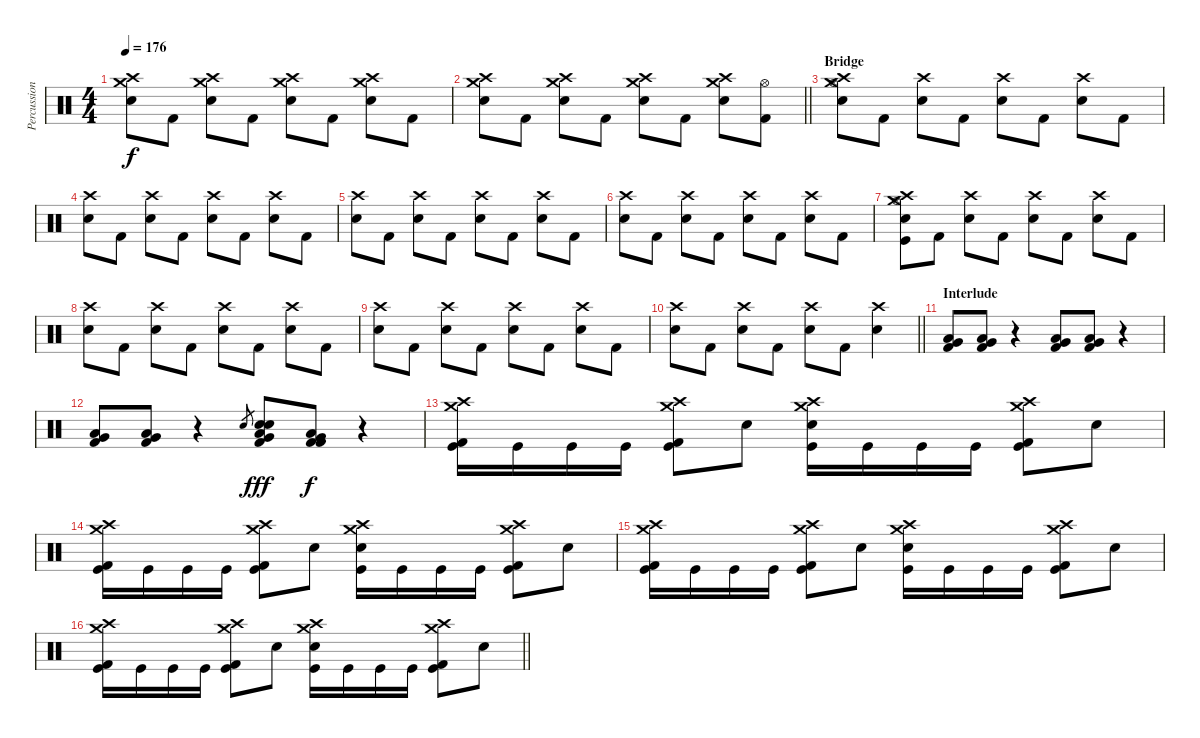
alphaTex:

\track ("Percussion" "Percussion") {instrument percussion}
\staff {score}
\articulation defaults
\ts (4 4)
\tempo 176
\clef neutral
\ks c
("Crash medium (hit)" "Crash high (hit)" "Electric Snare (hit)").8{dy f} "Kick (hit) 2".8 ("Crash medium (hit)" "Crash high (hit)" "Electric Snare (hit)").8 "Kick (hit) 2".8 ("Crash medium (hit)" "Crash high (hit)" "Electric Snare (hit)").8 "Kick (hit) 2".8 ("Crash high (hit)" "Crash medium (hit)" "Electric Snare (hit)").8 "Kick (hit) 2".8 |
\barLineRight lightlight
("Crash medium (hit)" "Crash high (hit)" "Electric Snare (hit)").8 "Kick (hit) 2".8 ("Crash medium (hit)" "Crash high (hit)" "Electric Snare (hit)").8 "Kick (hit) 2".8 ("Crash medium (hit)" "Crash high (hit)" "Electric Snare (hit)").8 "Kick (hit) 2".8 ("Crash high (hit)" "Crash medium (hit)" "Electric Snare (hit)").8 ("Hi-Hat (open)" "Kick (hit) 2").8 |
\section ("" "Bridge")
("Crash medium (hit)" "Crash high (hit)" "Hi-Hat (open)" "Electric Snare (hit)").8 "Kick (hit) 2".8 ("Crash high (hit)" "Electric Snare (hit)").8 "Kick (hit) 2".8 ("Crash high (hit)" "Electric Snare (hit)").8 "Kick (hit) 2".8 ("Crash high (hit)" "Electric Snare (hit)").8 "Kick (hit) 2".8 |
("Crash high (hit)" "Electric Snare (hit)").8 "Kick (hit) 2".8 ("Crash high (hit)" "Electric Snare (hit)").8 "Kick (hit) 2".8 ("Crash high (hit)" "Electric Snare (hit)").8 "Kick (hit) 2".8 ("Crash high (hit)" "Electric Snare (hit)").8 "Kick (hit) 2".8 |
("Crash high (hit)" "Electric Snare (hit)").8 "Kick (hit) 2".8 ("Crash high (hit)" "Electric Snare (hit)").8 "Kick (hit) 2".8 ("Crash high (hit)" "Electric Snare (hit)").8 "Kick (hit) 2".8 ("Crash high (hit)" "Electric Snare (hit)").8 "Kick (hit) 2".8 |
("Crash high (hit)" "Electric Snare (hit)").8 "Kick (hit) 2".8 ("Crash high (hit)" "Electric Snare (hit)").8 "Kick (hit) 2".8 ("Crash high (hit)" "Electric Snare (hit)").8 "Kick (hit) 2".8 ("Crash high (hit)" "Electric Snare (hit)").8 "Kick (hit) 2".8 |
("Crash medium (hit)" "Crash high (hit)" "Hi-Hat (open)" "Kick (hit)" "Electric Snare (hit)").8 "Kick (hit) 2".8 ("Crash high (hit)" "Electric Snare (hit)").8 "Kick (hit) 2".8 ("Crash high (hit)" "Electric Snare (hit)").8 "Kick (hit) 2".8 ("Crash high (hit)" "Electric Snare (hit)").8 "Kick (hit) 2".8 |
("Crash high (hit)" "Electric Snare (hit)").8 "Kick (hit) 2".8 ("Crash high (hit)" "Electric Snare (hit)").8 "Kick (hit) 2".8 ("Crash high (hit)" "Electric Snare (hit)").8 "Kick (hit) 2".8 ("Crash high (hit)" "Electric Snare (hit)").8 "Kick (hit) 2".8 |
("Crash high (hit)" "Electric Snare (hit)").8 "Kick (hit) 2".8 ("Crash high (hit)" "Electric Snare (hit)").8 "Kick (hit) 2".8 ("Crash high (hit)" "Electric Snare (hit)").8 "Kick (hit) 2".8 ("Crash high (hit)" "Electric Snare (hit)").8 "Kick (hit) 2".8 |
\barLineRight lightlight
("Crash high (hit)" "Electric Snare (hit)").8 "Kick (hit) 2".8 ("Crash high (hit)" "Electric Snare (hit)").8 "Kick (hit) 2".8 ("Crash high (hit)" "Electric Snare (hit)").8 "Kick (hit) 2".8 ("Crash high (hit)" "Electric Snare (hit)").4 |
\section ("" "Interlude")
("Kick (hit) 2" "Low Tom (hit)" "Very Low Tom (hit)").8 ("Kick (hit) 2" "Very Low Tom (hit)" "Low Floor Tom (hit)").8 r.4 ("Kick (hit) 2" "Low Tom (hit)" "Very Low Tom (hit)").8 ("Kick (hit) 2" "Very Low Tom (hit)" "Low Floor Tom (hit)").8 r.4 |
("Kick (hit) 2" "Low Tom (hit)" "Very Low Tom (hit)").8 ("Kick (hit) 2" "Very Low Tom (hit)" "Low Floor Tom (hit)").8 r.4 "Electric Snare (hit)".8{gr} ("Electric Snare (hit)" "Electric Snare (hit)" "Kick (hit) 2" "Low Tom (hit)" "Very Low Tom (hit)").8{dy fff} ("Kick (hit) 2" "Kick (hit) 2" "Very Low Tom (hit)" "Low Floor Tom (hit)").8{dy f} r.4 |
("Crash medium (hit)" "Crash high (hit)" "Kick (hit) 2" "Kick (hit)").16 "Kick (hit)".16 "Kick (hit)".16 "Kick (hit)".16 ("Crash high (hit)" "Crash medium (hit)" "Kick (hit) 2" "Kick (hit)").8 "Snare (hit)"{x}.8 ("Crash medium (hit)" "Crash high (hit)" "Electric Snare (hit)" "Kick (hit)").16 "Kick (hit)".16 "Kick (hit)".16 "Kick (hit)".16 ("Crash high (hit)" "Crash medium (hit)" "Kick (hit) 2" "Kick (hit)").8 "Snare (hit)"{x}.8 |
("Crash medium (hit)" "Crash high (hit)" "Kick (hit) 2" "Kick (hit)").16 "Kick (hit)".16 "Kick (hit)".16 "Kick (hit)".16 ("Crash high (hit)" "Crash medium (hit)" "Kick (hit) 2" "Kick (hit)").8 "Snare (hit)"{x}.8 ("Crash medium (hit)" "Crash high (hit)" "Electric Snare (hit)" "Kick (hit)").16 "Kick (hit)".16 "Kick (hit)".16 "Kick (hit)".16 ("Crash high (hit)" "Crash medium (hit)" "Kick (hit) 2" "Kick (hit)").8 "Snare (hit)"{x}.8 |
("Crash medium (hit)" "Crash high (hit)" "Kick (hit) 2" "Kick (hit)").16 "Kick (hit)".16 "Kick (hit)".16 "Kick (hit)".16 ("Crash high (hit)" "Crash medium (hit)" "Kick (hit) 2" "Kick (hit)").8 "Snare (hit)"{x}.8 ("Crash medium (hit)" "Crash high (hit)" "Electric Snare (hit)" "Kick (hit)").16 "Kick (hit)".16 "Kick (hit)".16 "Kick (hit)".16 ("Crash high (hit)" "Crash medium (hit)" "Kick (hit) 2" "Kick (hit)").8 "Snare (hit)"{x}.8 |
\barLineRight lightlight
("Crash medium (hit)" "Crash high (hit)" "Kick (hit) 2" "Kick (hit)").16 "Kick (hit)".16 "Kick (hit)".16 "Kick (hit)".16 ("Crash high (hit)" "Crash medium (hit)" "Kick (hit) 2" "Kick (hit)").8 "Snare (hit)"{x}.8 ("Crash medium (hit)" "Crash high (hit)" "Electric Snare (hit)" "Kick (hit)").16 "Kick (hit)".16 "Kick (hit)".16 "Kick (hit)".16 ("Crash high (hit)" "Crash medium (hit)" "Kick (hit) 2" "Kick (hit)").8 "Snare (hit)"{x}.8
